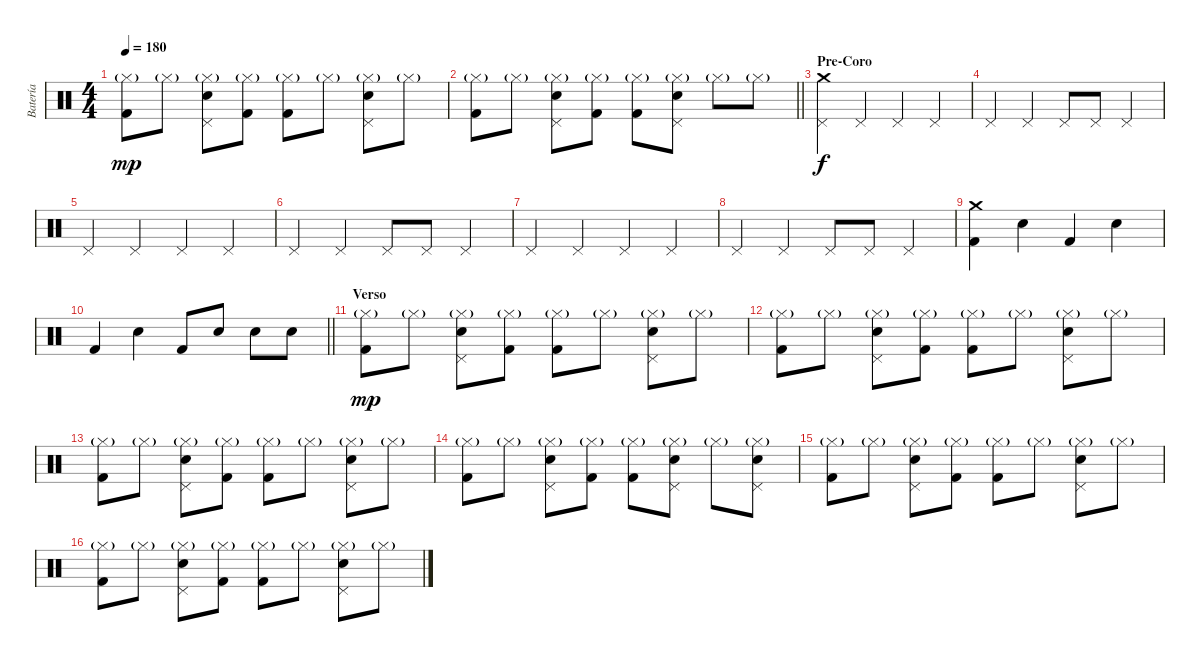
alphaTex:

\track ("Batería" "Batería") {instrument percussion}
\staff {score}
\articulation defaults
\ts (4 4)
\tempo 180
\clef neutral
\ks c
("Hi-Hat (closed)"{g} "Kick (hit) 2").8{dy mp} "Hi-Hat (closed)"{g}.8 ("Hi-Hat (closed)"{g} "Electric Snare (hit)" "Pedal Hi-Hat (hit)").8 ("Hi-Hat (closed)"{g} "Kick (hit) 2").8 ("Hi-Hat (closed)"{g} "Kick (hit) 2").8 "Hi-Hat (closed)"{g}.8 ("Hi-Hat (closed)"{g} "Electric Snare (hit)" "Pedal Hi-Hat (hit)").8 "Hi-Hat (closed)"{g}.8 |
\barLineRight lightlight
("Hi-Hat (closed)"{g} "Kick (hit) 2").8 "Hi-Hat (closed)"{g}.8 ("Hi-Hat (closed)"{g} "Electric Snare (hit)" "Pedal Hi-Hat (hit)").8 ("Hi-Hat (closed)"{g} "Kick (hit) 2").8 ("Hi-Hat (closed)"{g} "Kick (hit) 2").8 ("Hi-Hat (closed)"{g} "Electric Snare (hit)" "Pedal Hi-Hat (hit)").8 "Hi-Hat (closed)"{g}.8 "Hi-Hat (closed)"{g}.8 |
\section ("" "Pre-Coro")
("Pedal Hi-Hat (hit)" "Crash medium (hit)").4{dy f} "Pedal Hi-Hat (hit)".4 "Pedal Hi-Hat (hit)".4 "Pedal Hi-Hat (hit)".4 |
"Pedal Hi-Hat (hit)".4 "Pedal Hi-Hat (hit)".4 "Pedal Hi-Hat (hit)".8 "Pedal Hi-Hat (hit)".8 "Pedal Hi-Hat (hit)".4 |
"Pedal Hi-Hat (hit)".4 "Pedal Hi-Hat (hit)".4 "Pedal Hi-Hat (hit)".4 "Pedal Hi-Hat (hit)".4 |
"Pedal Hi-Hat (hit)".4 "Pedal Hi-Hat (hit)".4 "Pedal Hi-Hat (hit)".8 "Pedal Hi-Hat (hit)".8 "Pedal Hi-Hat (hit)".4 |
"Pedal Hi-Hat (hit)".4 "Pedal Hi-Hat (hit)".4 "Pedal Hi-Hat (hit)".4 "Pedal Hi-Hat (hit)".4 |
"Pedal Hi-Hat (hit)".4 "Pedal Hi-Hat (hit)".4 "Pedal Hi-Hat (hit)".8 "Pedal Hi-Hat (hit)".8 "Pedal Hi-Hat (hit)".4 |
("Kick (hit) 2" "Crash medium (hit)").4 "Electric Snare (hit)".4 "Kick (hit) 2".4 "Electric Snare (hit)".4 |
\barLineRight lightlight "Kick (hit) 2".4 "Electric Snare (hit)".4 "Kick (hit) 2".8 "Electric Snare (hit)".8 "Electric Snare (hit)".8 "Electric Snare (hit)".8
|
\section ("" "Verso")
("Hi-Hat (closed)"{g} "Kick (hit) 2").8{dy mp} "Hi-Hat (closed)"{g}.8 ("Hi-Hat (closed)"{g} "Electric Snare (hit)" "Pedal Hi-Hat (hit)").8 ("Hi-Hat (closed)"{g} "Kick (hit) 2").8 ("Hi-Hat (closed)"{g} "Kick (hit) 2").8 "Hi-Hat (closed)"{g}.8 ("Hi-Hat (closed)"{g} "Electric Snare (hit)" "Pedal Hi-Hat (hit)").8 "Hi-Hat (closed)"{g}.8 |
("Hi-Hat (closed)"{g} "Kick (hit) 2").8 "Hi-Hat (closed)"{g}.8 ("Hi-Hat (closed)"{g} "Electric Snare (hit)" "Pedal Hi-Hat (hit)").8 ("Hi-Hat (closed)"{g} "Kick (hit) 2").8 ("Hi-Hat (closed)"{g} "Kick (hit) 2").8 "Hi-Hat (closed)"{g}.8 ("Hi-Hat (closed)"{g} "Electric Snare (hit)" "Pedal Hi-Hat (hit)").8 "Hi-Hat (closed)"{g}.8 |
("Hi-Hat (closed)"{g} "Kick (hit) 2").8 "Hi-Hat (closed)"{g}.8 ("Hi-Hat (closed)"{g} "Electric Snare (hit)" "Pedal Hi-Hat (hit)").8 ("Hi-Hat (closed)"{g} "Kick (hit) 2").8 ("Hi-Hat (closed)"{g} "Kick (hit) 2").8 "Hi-Hat (closed)"{g}.8 ("Hi-Hat (closed)"{g} "Electric Snare (hit)" "Pedal Hi-Hat (hit)").8 "Hi-Hat (closed)"{g}.8 |
("Hi-Hat (closed)"{g} "Kick (hit) 2").8 "Hi-Hat (closed)"{g}.8 ("Hi-Hat (closed)"{g} "Electric Snare (hit)" "Pedal Hi-Hat (hit)").8 ("Hi-Hat (closed)"{g} "Kick (hit) 2").8 ("Hi-Hat (closed)"{g} "Kick (hit) 2").8 ("Hi-Hat (closed)"{g} "Electric Snare (hit)" "Pedal Hi-Hat (hit)").8 "Hi-Hat (closed)"{g}.8 ("Hi-Hat (closed)"{g} "Electric Snare (hit)" "Pedal Hi-Hat (hit)").8 |
("Hi-Hat (closed)"{g} "Kick (hit) 2").8 "Hi-Hat (closed)"{g}.8 ("Hi-Hat (closed)"{g} "Electric Snare (hit)" "Pedal Hi-Hat (hit)").8 ("Hi-Hat (closed)"{g} "Kick (hit) 2").8 ("Hi-Hat (closed)"{g} "Kick (hit) 2").8 "Hi-Hat (closed)"{g}.8 ("Hi-Hat (closed)"{g} "Electric Snare (hit)" "Pedal Hi-Hat (hit)").8 "Hi-Hat (closed)"{g}.8 |
("Hi-Hat (closed)"{g} "Kick (hit) 2").8 "Hi-Hat (closed)"{g}.8 ("Hi-Hat (closed)"{g} "Electric Snare (hit)" "Pedal Hi-Hat (hit)").8 ("Hi-Hat (closed)"{g} "Kick (hit) 2").8 ("Hi-Hat (closed)"{g} "Kick (hit) 2").8 "Hi-Hat (closed)"{g}.8 ("Hi-Hat (closed)"{g} "Electric Snare (hit)" "Pedal Hi-Hat (hit)").8 "Hi-Hat (closed)"{g}.8
